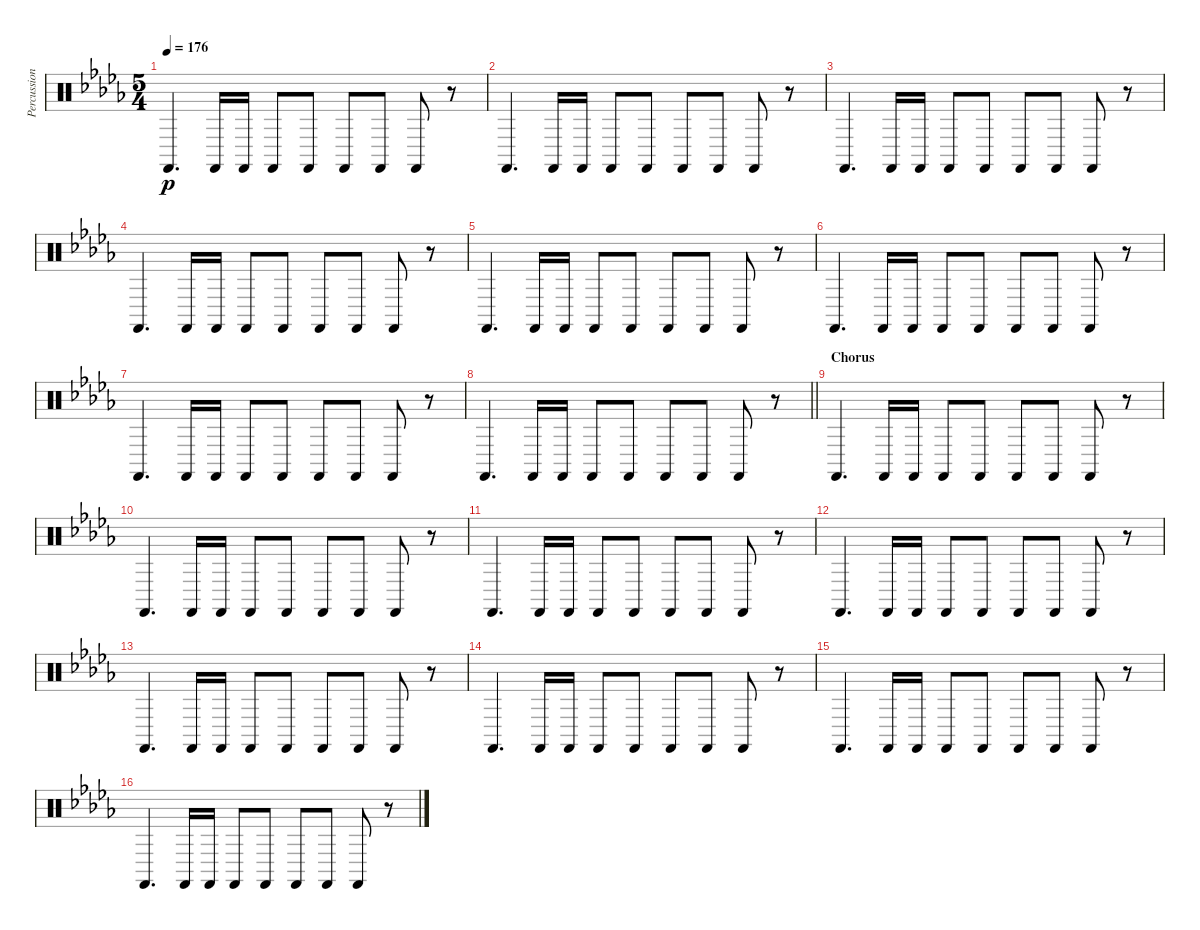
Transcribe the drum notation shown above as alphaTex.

\track ("Percussion" "Percussion") {instrument percussion}
\staff {score}
\articulation defaults
\ts (5 4)
\tempo 176
\clef neutral
\ks db "Castanets (hit)".4{d dy p} "Castanets (hit)".16 "Castanets (hit)".16 "Castanets (hit)".8 "Castanets (hit)".8 "Castanets (hit)".8 "Castanets (hit)".8 "Castanets (hit)".8
r.8 |
"Castanets (hit)".4{d} "Castanets (hit)".16 "Castanets (hit)".16 "Castanets (hit)".8 "Castanets (hit)".8 "Castanets (hit)".8 "Castanets (hit)".8 "Castanets (hit)".8 r.8 |
"Castanets (hit)".4{d} "Castanets (hit)".16 "Castanets (hit)".16 "Castanets (hit)".8 "Castanets (hit)".8 "Castanets (hit)".8 "Castanets (hit)".8 "Castanets (hit)".8 r.8 |
"Castanets (hit)".4{d} "Castanets (hit)".16 "Castanets (hit)".16 "Castanets (hit)".8 "Castanets (hit)".8 "Castanets (hit)".8 "Castanets (hit)".8 "Castanets (hit)".8 r.8 |
"Castanets (hit)".4{d} "Castanets (hit)".16 "Castanets (hit)".16 "Castanets (hit)".8 "Castanets (hit)".8 "Castanets (hit)".8 "Castanets (hit)".8 "Castanets (hit)".8 r.8 |
"Castanets (hit)".4{d} "Castanets (hit)".16 "Castanets (hit)".16 "Castanets (hit)".8 "Castanets (hit)".8 "Castanets (hit)".8 "Castanets (hit)".8 "Castanets (hit)".8 r.8 |
"Castanets (hit)".4{d} "Castanets (hit)".16 "Castanets (hit)".16 "Castanets (hit)".8 "Castanets (hit)".8 "Castanets (hit)".8 "Castanets (hit)".8 "Castanets (hit)".8 r.8 |
\barLineRight lightlight "Castanets (hit)".4{d} "Castanets (hit)".16 "Castanets (hit)".16 "Castanets (hit)".8 "Castanets (hit)".8 "Castanets (hit)".8 "Castanets (hit)".8 "Castanets (hit)".8
r.8 |
\section ("" "Chorus")
"Castanets (hit)".4{d} "Castanets (hit)".16 "Castanets (hit)".16 "Castanets (hit)".8 "Castanets (hit)".8 "Castanets (hit)".8 "Castanets (hit)".8 "Castanets (hit)".8 r.8 |
"Castanets (hit)".4{d} "Castanets (hit)".16 "Castanets (hit)".16 "Castanets (hit)".8 "Castanets (hit)".8 "Castanets (hit)".8 "Castanets (hit)".8 "Castanets (hit)".8 r.8 |
"Castanets (hit)".4{d} "Castanets (hit)".16 "Castanets (hit)".16 "Castanets (hit)".8 "Castanets (hit)".8 "Castanets (hit)".8 "Castanets (hit)".8 "Castanets (hit)".8 r.8 |
"Castanets (hit)".4{d} "Castanets (hit)".16 "Castanets (hit)".16 "Castanets (hit)".8 "Castanets (hit)".8 "Castanets (hit)".8 "Castanets (hit)".8 "Castanets (hit)".8 r.8 |
"Castanets (hit)".4{d} "Castanets (hit)".16 "Castanets (hit)".16 "Castanets (hit)".8 "Castanets (hit)".8 "Castanets (hit)".8 "Castanets (hit)".8 "Castanets (hit)".8 r.8 |
"Castanets (hit)".4{d} "Castanets (hit)".16 "Castanets (hit)".16 "Castanets (hit)".8 "Castanets (hit)".8 "Castanets (hit)".8 "Castanets (hit)".8 "Castanets (hit)".8 r.8 |
"Castanets (hit)".4{d} "Castanets (hit)".16 "Castanets (hit)".16 "Castanets (hit)".8 "Castanets (hit)".8 "Castanets (hit)".8 "Castanets (hit)".8 "Castanets (hit)".8 r.8 |
"Castanets (hit)".4{d} "Castanets (hit)".16 "Castanets (hit)".16 "Castanets (hit)".8 "Castanets (hit)".8 "Castanets (hit)".8 "Castanets (hit)".8 "Castanets (hit)".8 r.8
